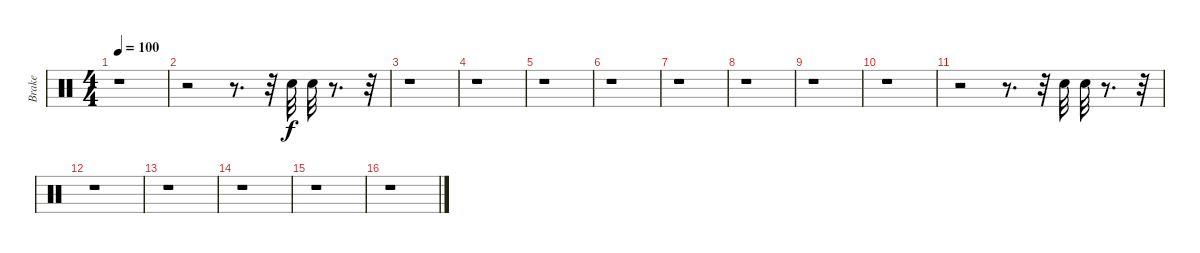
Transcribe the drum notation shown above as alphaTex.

\track ("Brake" "Brake") {instrument percussion}
\staff {score}
\articulation defaults
\ts (4 4)
\tempo 100
\clef neutral
\ks c
r.1{dy f} |
r.2 r.8{d} r.32 "Metronome (bell)".32 "Metronome (bell)".32 r.8{d} r.32 |
r.1 |
r.1 |
r.1 |
r.1 |
r.1 |
r.1 |
r.1 |
r.1 |
r.2 r.8{d} r.32 "Metronome (bell)".32 "Metronome (bell)".32 r.8{d} r.32 |
r.1 |
r.1 |
r.1 |
r.1 |
r.1
